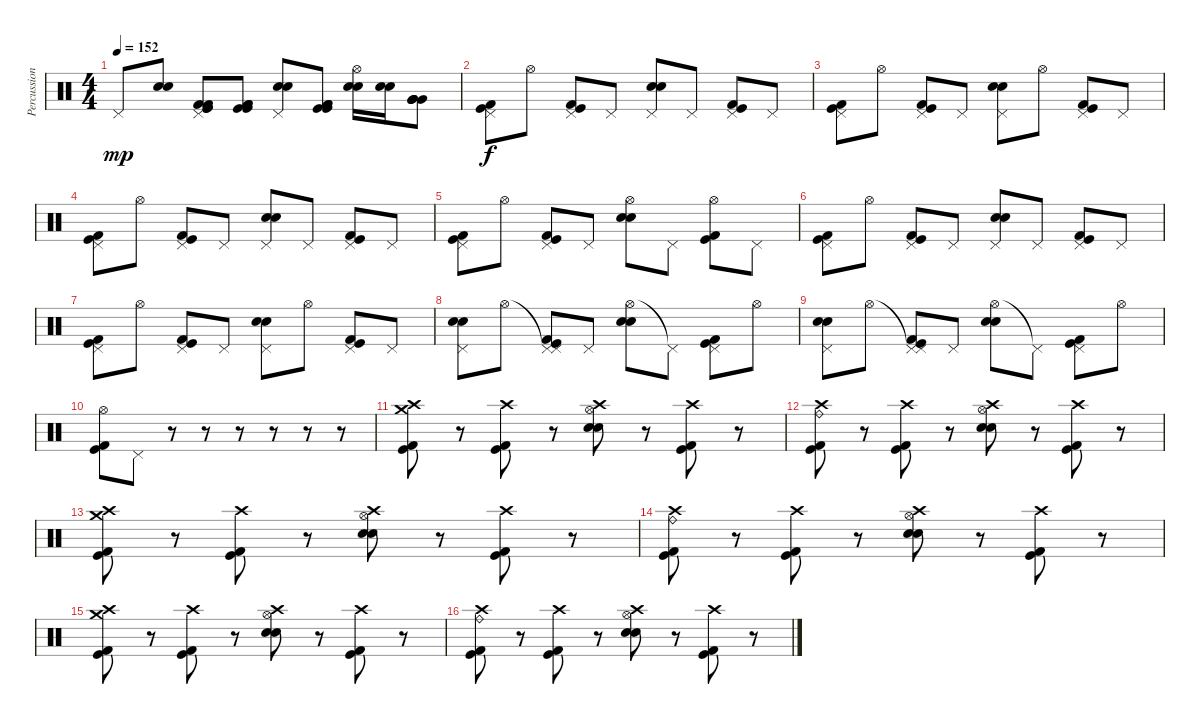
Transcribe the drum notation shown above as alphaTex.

\track ("Percussion" "Percussion") {instrument percussion}
\staff {score}
\articulation defaults
\ts (4 4)
\tempo 152
\clef neutral
\ks c "Pedal Hi-Hat (hit)".8{dy mp}
("Electric Snare (hit)" "Snare (hit) 2").8 ("Pedal Hi-Hat (hit)" "Kick (hit) 2" "Kick (hit)" "Kick (hit) 2" "Kick (hit)").8 ("Kick (hit) 2" "Kick (hit)" "Kick (hit) 2" "Kick (hit)").8 ("Pedal Hi-Hat (hit)" "Electric Snare (hit)" "Snare (hit) 2").8 ("Kick (hit) 2" "Kick (hit)" "Kick (hit) 2" "Kick (hit)").8 ("Hi-Hat (open)" "Electric Snare (hit)" "Snare (hit) 2").16 ("Electric Snare (hit)" "Snare (hit) 2").16 ("Very Low Tom (hit)" "Very Low Tom (hit)" "Very Low Tom (hit)" "Very Low Tom (hit)").8 |
("Pedal Hi-Hat (hit)" "Kick (hit) 2" "Kick (hit)").8{dy f} "Hi-Hat (open)".8 ("Pedal Hi-Hat (hit)" "Kick (hit) 2" "Kick (hit)").8 "Pedal Hi-Hat (hit)".8 ("Pedal Hi-Hat (hit)" "Electric Snare (hit)" "Snare (hit) 2").8 "Pedal Hi-Hat (hit)".8 ("Pedal Hi-Hat (hit)" "Kick (hit) 2" "Kick (hit)").8 "Pedal Hi-Hat (hit)".8 |
("Pedal Hi-Hat (hit)" "Kick (hit) 2" "Kick (hit)").8 "Hi-Hat (open)".8 ("Pedal Hi-Hat (hit)" "Kick (hit) 2" "Kick (hit)").8 "Pedal Hi-Hat (hit)".8 ("Pedal Hi-Hat (hit)" "Electric Snare (hit)" "Snare (hit) 2").8 "Hi-Hat (open)".8 ("Pedal Hi-Hat (hit)" "Kick (hit) 2" "Kick (hit)").8 "Pedal Hi-Hat (hit)".8 |
("Pedal Hi-Hat (hit)" "Kick (hit) 2" "Kick (hit)").8 "Hi-Hat (open)".8 ("Pedal Hi-Hat (hit)" "Kick (hit) 2" "Kick (hit)").8 "Pedal Hi-Hat (hit)".8 ("Pedal Hi-Hat (hit)" "Electric Snare (hit)" "Snare (hit) 2").8 "Pedal Hi-Hat (hit)".8 ("Pedal Hi-Hat (hit)" "Kick (hit) 2" "Kick (hit)").8 "Pedal Hi-Hat (hit)".8 |
("Pedal Hi-Hat (hit)" "Kick (hit) 2" "Kick (hit)").8 "Hi-Hat (open)".8 ("Pedal Hi-Hat (hit)" "Kick (hit) 2" "Kick (hit)").8 "Pedal Hi-Hat (hit)".8 ("Hi-Hat (open)" "Electric Snare (hit)" "Snare (hit) 2").8 "Pedal Hi-Hat (hit)".8 ("Hi-Hat (open)" "Kick (hit) 2" "Kick (hit)").8 "Pedal Hi-Hat (hit)".8 |
("Pedal Hi-Hat (hit)" "Kick (hit) 2" "Kick (hit)").8 "Hi-Hat (open)".8 ("Pedal Hi-Hat (hit)" "Kick (hit) 2" "Kick (hit)").8 "Pedal Hi-Hat (hit)".8 ("Pedal Hi-Hat (hit)" "Electric Snare (hit)" "Snare (hit) 2").8 "Pedal Hi-Hat (hit)".8 ("Pedal Hi-Hat (hit)" "Kick (hit) 2" "Kick (hit)").8 "Pedal Hi-Hat (hit)".8 |
("Pedal Hi-Hat (hit)" "Kick (hit) 2" "Kick (hit)").8 "Hi-Hat (open)".8 ("Pedal Hi-Hat (hit)" "Kick (hit) 2" "Kick (hit)").8 "Pedal Hi-Hat (hit)".8 ("Pedal Hi-Hat (hit)" "Electric Snare (hit)" "Snare (hit) 2").8 "Hi-Hat (open)".8 ("Pedal Hi-Hat (hit)" "Kick (hit) 2" "Kick (hit)").8 "Pedal Hi-Hat (hit)".8 |
("Pedal Hi-Hat (hit)" "Electric Snare (hit)" "Snare (hit) 2").8 "Hi-Hat (open)".8 ("Pedal Hi-Hat (hit)"{t} "Pedal Hi-Hat (hit)" "Kick (hit) 2" "Kick (hit)").8 "Pedal Hi-Hat (hit)".8 ("Hi-Hat (open)" "Electric Snare (hit)" "Snare (hit) 2").8 "Pedal Hi-Hat (hit)"{t}.8 ("Pedal Hi-Hat (hit)" "Kick (hit) 2" "Kick (hit)").8 "Hi-Hat (open)".8 |
("Pedal Hi-Hat (hit)" "Electric Snare (hit)" "Snare (hit) 2").8 "Hi-Hat (open)".8 ("Pedal Hi-Hat (hit)"{t} "Pedal Hi-Hat (hit)" "Kick (hit) 2" "Kick (hit)").8 "Pedal Hi-Hat (hit)".8 ("Hi-Hat (open)" "Electric Snare (hit)" "Snare (hit) 2").8 "Pedal Hi-Hat (hit)"{t}.8 ("Pedal Hi-Hat (hit)" "Kick (hit) 2" "Kick (hit)").8 "Hi-Hat (open)".8 |
("Hi-Hat (open)" "Kick (hit) 2" "Kick (hit)").8 "Pedal Hi-Hat (hit)".8 r.8 r.8 r.8 r.8 r.8 r.8 |
("Crash high (hit)" "Crash medium (hit)" "Kick (hit) 2" "Kick (hit)").8 r.8 ("Crash high (hit)" "Kick (hit) 2" "Kick (hit)").8 r.8 ("Crash high (hit)" "Hi-Hat (open)" "Electric Snare (hit)" "Snare (hit) 2").8 r.8 ("Crash high (hit)" "Kick (hit) 2" "Kick (hit)").8 r.8 |
("Crash high (hit)" "Ride (bell)" "Kick (hit) 2" "Kick (hit)").8 r.8 ("Crash high (hit)" "Kick (hit) 2" "Kick (hit)").8 r.8 ("Crash high (hit)" "Hi-Hat (open)" "Electric Snare (hit)" "Snare (hit) 2").8 r.8 ("Crash high (hit)" "Kick (hit) 2" "Kick (hit)").8 r.8 |
("Crash high (hit)" "Crash medium (hit)" "Kick (hit) 2" "Kick (hit)").8 r.8 ("Crash high (hit)" "Kick (hit) 2" "Kick (hit)").8 r.8 ("Crash high (hit)" "Hi-Hat (open)" "Electric Snare (hit)" "Snare (hit) 2").8 r.8 ("Crash high (hit)" "Kick (hit) 2" "Kick (hit)").8 r.8 |
("Crash high (hit)" "Ride (bell)" "Kick (hit) 2" "Kick (hit)").8 r.8 ("Crash high (hit)" "Kick (hit) 2" "Kick (hit)").8 r.8 ("Crash high (hit)" "Hi-Hat (open)" "Electric Snare (hit)" "Snare (hit) 2").8 r.8 ("Crash high (hit)" "Kick (hit) 2" "Kick (hit)").8 r.8 |
("Crash high (hit)" "Crash medium (hit)" "Kick (hit) 2" "Kick (hit)").8 r.8 ("Crash high (hit)" "Kick (hit) 2" "Kick (hit)").8 r.8 ("Crash high (hit)" "Hi-Hat (open)" "Electric Snare (hit)" "Snare (hit) 2").8 r.8 ("Crash high (hit)" "Kick (hit) 2" "Kick (hit)").8 r.8 |
("Crash high (hit)" "Ride (bell)" "Kick (hit) 2" "Kick (hit)").8 r.8 ("Crash high (hit)" "Kick (hit) 2" "Kick (hit)").8 r.8 ("Crash high (hit)" "Hi-Hat (open)" "Electric Snare (hit)" "Snare (hit) 2").8 r.8 ("Crash high (hit)" "Kick (hit) 2" "Kick (hit)").8 r.8
